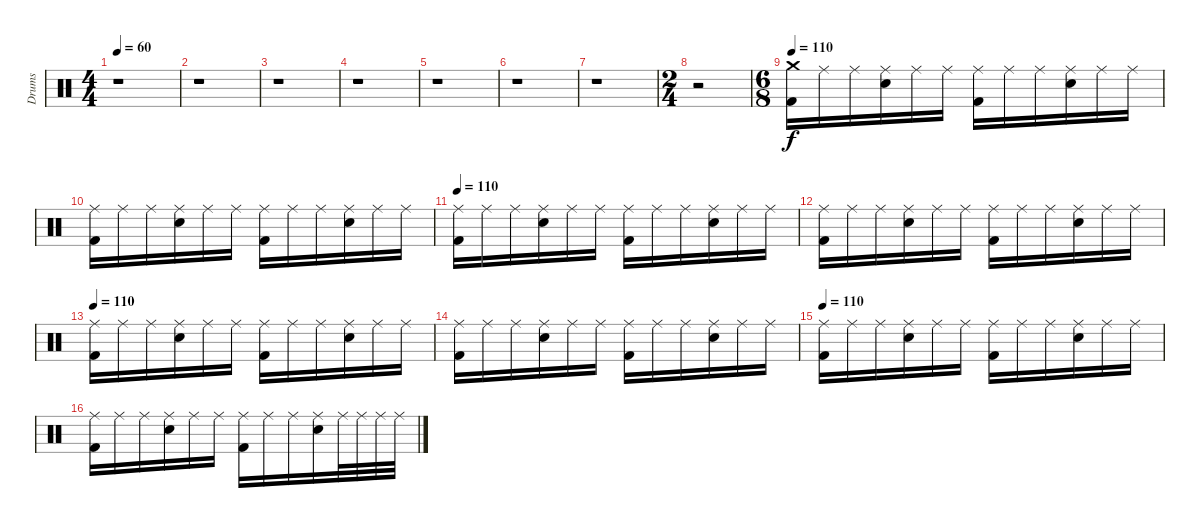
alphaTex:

\track ("Drums" "Drums") {instrument percussion}
\staff {score}
\articulation defaults
\ts (4 4)
\tempo 60
\clef neutral
\ks c
r.1{dy f} |
r.1 |
r.1 |
r.1 |
r.1 |
r.1 |
r.1 |
\ts (2 4)
r.2 |
\ts (6 8)
\tempo 110
("Crash medium (hit)" "Kick (hit) 2").16 "Ride (middle)".16 "Ride (middle)".16 ("Ride (middle)" "Electric Snare (hit)").16 "Ride (middle)".16 "Ride (middle)".16 ("Ride (middle)" "Kick (hit) 2").16 "Ride (middle)".16 "Ride (middle)".16 ("Ride (middle)" "Electric Snare (hit)").16 "Ride (middle)".16 "Ride (middle)".16 |
("Ride (middle)" "Kick (hit) 2").16 "Ride (middle)".16 "Ride (middle)".16 ("Ride (middle)" "Electric Snare (hit)").16 "Ride (middle)".16 "Ride (middle)".16 ("Ride (middle)" "Kick (hit) 2").16 "Ride (middle)".16 "Ride (middle)".16 ("Ride (middle)" "Electric Snare (hit)").16 "Ride (middle)".16 "Ride (middle)".16 |
\tempo 110
("Ride (middle)" "Kick (hit) 2").16 "Ride (middle)".16 "Ride (middle)".16 ("Ride (middle)" "Electric Snare (hit)").16 "Ride (middle)".16 "Ride (middle)".16 ("Ride (middle)" "Kick (hit) 2").16 "Ride (middle)".16 "Ride (middle)".16 ("Ride (middle)" "Electric Snare (hit)").16 "Ride (middle)".16 "Ride (middle)".16 |
("Ride (middle)" "Kick (hit) 2").16 "Ride (middle)".16 "Ride (middle)".16 ("Ride (middle)" "Electric Snare (hit)").16 "Ride (middle)".16 "Ride (middle)".16 ("Ride (middle)" "Kick (hit) 2").16 "Ride (middle)".16 "Ride (middle)".16 ("Ride (middle)" "Electric Snare (hit)").16 "Ride (middle)".16 "Ride (middle)".16 |
\tempo 110
("Ride (middle)" "Kick (hit) 2").16 "Ride (middle)".16 "Ride (middle)".16 ("Ride (middle)" "Electric Snare (hit)").16 "Ride (middle)".16 "Ride (middle)".16 ("Ride (middle)" "Kick (hit) 2").16 "Ride (middle)".16 "Ride (middle)".16 ("Ride (middle)" "Electric Snare (hit)").16 "Ride (middle)".16 "Ride (middle)".16 |
("Ride (middle)" "Kick (hit) 2").16 "Ride (middle)".16 "Ride (middle)".16 ("Ride (middle)" "Electric Snare (hit)").16 "Ride (middle)".16 "Ride (middle)".16 ("Ride (middle)" "Kick (hit) 2").16 "Ride (middle)".16 "Ride (middle)".16 ("Ride (middle)" "Electric Snare (hit)").16 "Ride (middle)".16 "Ride (middle)".16 |
\tempo 110
("Ride (middle)" "Kick (hit) 2").16 "Ride (middle)".16 "Ride (middle)".16 ("Ride (middle)" "Electric Snare (hit)").16 "Ride (middle)".16 "Ride (middle)".16 ("Ride (middle)" "Kick (hit) 2").16 "Ride (middle)".16 "Ride (middle)".16 ("Ride (middle)" "Electric Snare (hit)").16 "Ride (middle)".16 "Ride (middle)".16 |
("Ride (middle)" "Kick (hit) 2").16 "Ride (middle)".16 "Ride (middle)".16 ("Ride (middle)" "Electric Snare (hit)").16 "Ride (middle)".16 "Ride (middle)".16 ("Ride (middle)" "Kick (hit) 2").16 "Ride (middle)".16 "Ride (middle)".16 ("Ride (middle)" "Electric Snare (hit)").16 "Ride (middle)".32 "Ride (middle)".32 "Ride (middle)".32 "Ride (middle)".32
